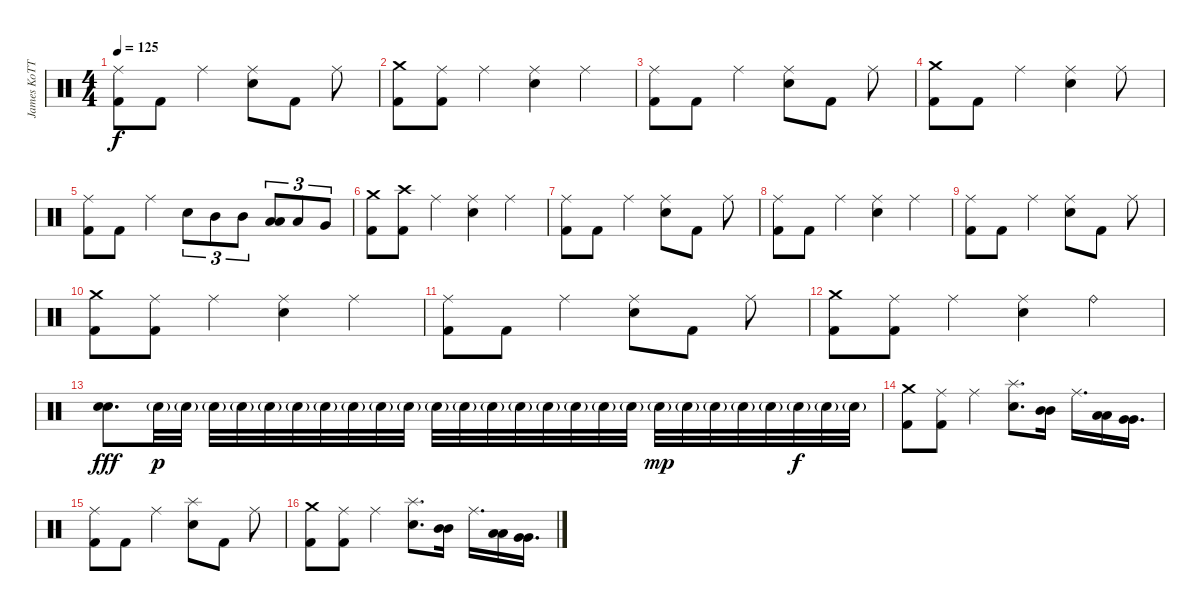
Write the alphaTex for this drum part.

\track ("James KoTTak" "James KoTT") {instrument percussion}
\staff {score}
\articulation defaults
\ts (4 4)
\tempo 125
\clef neutral
\ks c
("Kick (hit) 2" "Ride (middle)").8{dy f} "Kick (hit) 2".8 "Ride (middle)".4 ("Snare (hit) 2" "Ride (middle)").8 "Kick (hit) 2".8 "Ride (middle)".8 |
("Kick (hit) 2" "Crash medium (hit)").8 ("Kick (hit) 2" "Ride (middle)").8 "Ride (middle)".4 ("Snare (hit) 2" "Ride (middle)").4 "Ride (middle)".4 |
("Kick (hit) 2" "Ride (middle)").8 "Kick (hit) 2".8 "Ride (middle)".4 ("Snare (hit) 2" "Ride (middle)").8 "Kick (hit) 2".8 "Ride (middle)".8 |
("Kick (hit) 2" "Crash medium (hit)").8 "Kick (hit) 2".8 "Ride (middle)".4 ("Snare (hit) 2" "Ride (middle)").4 "Ride (middle)".8 |
("Kick (hit) 2" "Ride (middle)").8 "Kick (hit) 2".8 "Ride (middle)".4 "Snare (hit) 2".8{tu (3 2)} "Mid Tom (hit)".8{tu (3 2)} "Mid Tom (hit)".8{tu (3 2)} ("Low Tom (hit)" "Low Tom (hit)").8{tu (3 2) bd 120} "Low Tom (hit)".8{tu (3 2)} "Very Low Tom (hit)".8{tu (3 2)} |
("Kick (hit) 2" "Crash medium (hit)").8 ("Kick (hit) 2" "Crash high (hit)").8 "Ride (middle)".4 ("Snare (hit) 2" "Ride (middle)").4 "Ride (middle)".4 |
("Kick (hit) 2" "Ride (middle)").8 "Kick (hit) 2".8 "Ride (middle)".4 ("Snare (hit) 2" "Ride (middle)").8 "Kick (hit) 2".8 "Ride (middle)".8 |
("Kick (hit) 2" "Ride (middle)").8 "Kick (hit) 2".8 "Ride (middle)".4 ("Snare (hit) 2" "Ride (middle)").4 "Ride (middle)".4 |
("Kick (hit) 2" "Ride (middle)").8 "Kick (hit) 2".8 "Ride (middle)".4 ("Snare (hit) 2" "Ride (middle)").8 "Kick (hit) 2".8 "Ride (middle)".8 |
("Kick (hit) 2" "Crash medium (hit)").8 ("Kick (hit) 2" "Ride (middle)").8 "Ride (middle)".4 ("Snare (hit) 2" "Ride (middle)").4 "Ride (middle)".4 |
("Kick (hit) 2" "Ride (middle)").8 "Kick (hit) 2".8 "Ride (middle)".4 ("Snare (hit) 2" "Ride (middle)").8 "Kick (hit) 2".8 "Ride (middle)".8 |
("Kick (hit) 2" "Crash medium (hit)").8 ("Kick (hit) 2" "Ride (middle)").8 "Ride (middle)".4 ("Snare (hit) 2" "Ride (middle)").4 "Ride (bell)".4 |
("Snare (hit) 2" "Snare (hit) 2").8{d bd 240 dy fff} "Snare (hit) 2"{g}.32{dy p} "Snare (hit) 2"{g}.32 "Snare (hit) 2"{g}.32 "Snare (hit) 2"{g}.32 "Snare (hit) 2"{g}.32 "Snare (hit) 2"{g}.32 "Snare (hit) 2"{g}.32 "Snare (hit) 2"{g}.32 "Snare (hit) 2"{g}.32 "Snare (hit) 2"{g}.32 "Snare (hit) 2"{g}.32 "Snare (hit) 2"{g}.32 "Snare (hit) 2"{g}.32 "Snare (hit) 2"{g}.32 "Snare (hit) 2"{g}.32 "Snare (hit) 2"{g}.32 "Snare (hit) 2"{g}.32 "Snare (hit) 2"{g}.32 "Snare (hit) 2"{g}.32{dy mp} "Snare (hit) 2"{g}.32 "Snare (hit) 2"{g}.32 "Snare (hit) 2"{g}.32 "Snare (hit) 2"{g}.32 "Snare (hit) 2"{g}.32{dy f} "Snare (hit) 2"{g}.32 "Snare (hit) 2"{g}.32 |
("Kick (hit) 2" "Crash medium (hit)").8 ("Kick (hit) 2" "Ride (middle)").8 "Ride (middle)".4 ("Snare (hit) 2" "Splash (hit)").8{d} ("Mid Tom (hit)" "Mid Tom (hit)").16{bd 120} "Ride (middle)".16{d} ("Low Tom (hit)" "Low Tom (hit)").16{bd 120} ("Very Low Tom (hit)" "Very Low Tom (hit)").16{d bu 120} |
("Kick (hit) 2" "Ride (middle)").8 "Kick (hit) 2".8 "Ride (middle)".4 ("Snare (hit) 2" "Splash (hit)").8 "Kick (hit) 2".8 "Ride (middle)".8 |
("Kick (hit) 2" "Crash medium (hit)").8 ("Kick (hit) 2" "Ride (middle)").8 "Ride (middle)".4 ("Snare (hit) 2" "Splash (hit)").8{d} ("Mid Tom (hit)" "Mid Tom (hit)").16{bd 120} "Ride (middle)".16{d} ("Low Tom (hit)" "Low Tom (hit)").16{bd 120} ("Very Low Tom (hit)" "Very Low Tom (hit)").16{d bu 120}
